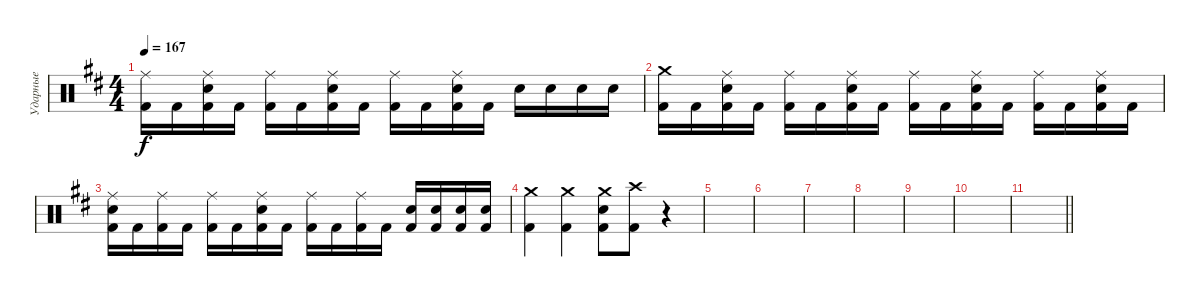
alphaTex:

\track ("Ударные" "Ударные") {instrument percussion}
\staff {score}
\articulation defaults
\ts (4 4)
\tempo 167
\clef neutral
\ks bminor
("Kick (hit) 2" "Ride (middle)").16{dy f} "Kick (hit) 2".16 ("Snare (hit) 2" "Kick (hit) 2" "Ride (middle)").16 "Kick (hit) 2".16 ("Kick (hit) 2" "Ride (middle)").16 "Kick (hit) 2".16 ("Snare (hit) 2" "Kick (hit) 2" "Ride (middle)").16 "Kick (hit) 2".16 ("Kick (hit) 2" "Ride (middle)").16 "Kick (hit) 2".16 ("Snare (hit) 2" "Kick (hit) 2" "Ride (middle)").16 "Kick (hit) 2".16 "Snare (hit) 2".16 "Snare (hit) 2".16 "Snare (hit) 2".16 "Snare (hit) 2".16 |
("Kick (hit) 2" "Crash medium (hit)").16 "Kick (hit) 2".16 ("Snare (hit) 2" "Kick (hit) 2" "Ride (middle)").16 "Kick (hit) 2".16 ("Kick (hit) 2" "Ride (middle)").16 "Kick (hit) 2".16 ("Snare (hit) 2" "Kick (hit) 2" "Ride (middle)").16 "Kick (hit) 2".16 ("Kick (hit) 2" "Ride (middle)").16 "Kick (hit) 2".16 ("Snare (hit) 2" "Kick (hit) 2" "Ride (middle)").16 "Kick (hit) 2".16 ("Kick (hit) 2" "Ride (middle)").16 "Kick (hit) 2".16 ("Snare (hit) 2" "Kick (hit) 2" "Ride (middle)").16 "Kick (hit) 2".16 |
("Snare (hit) 2" "Kick (hit) 2" "Ride (middle)").16 "Kick (hit) 2".16 ("Kick (hit) 2" "Ride (middle)").16 "Kick (hit) 2".16 ("Kick (hit) 2" "Ride (middle)").16 "Kick (hit) 2".16 ("Snare (hit) 2" "Kick (hit) 2" "Ride (middle)").16 "Kick (hit) 2".16 ("Kick (hit) 2" "Ride (middle)").16 "Kick (hit) 2".16 ("Kick (hit) 2" "Ride (middle)").16 "Kick (hit) 2".16 ("Kick (hit) 2" "Snare (hit) 2").16 ("Kick (hit) 2" "Snare (hit) 2").16 ("Kick (hit) 2" "Snare (hit) 2").16 ("Kick (hit) 2" "Snare (hit) 2").16 |
("Kick (hit) 2" "Crash medium (hit)").4 ("Kick (hit) 2" "Crash medium (hit)").4 ("Kick (hit) 2" "Crash medium (hit)" "Snare (hit) 2").8 ("Crash high (hit)" "Kick (hit) 2").8 r.4 |
|
|
|
|
|
|
\barLineRight lightlight
